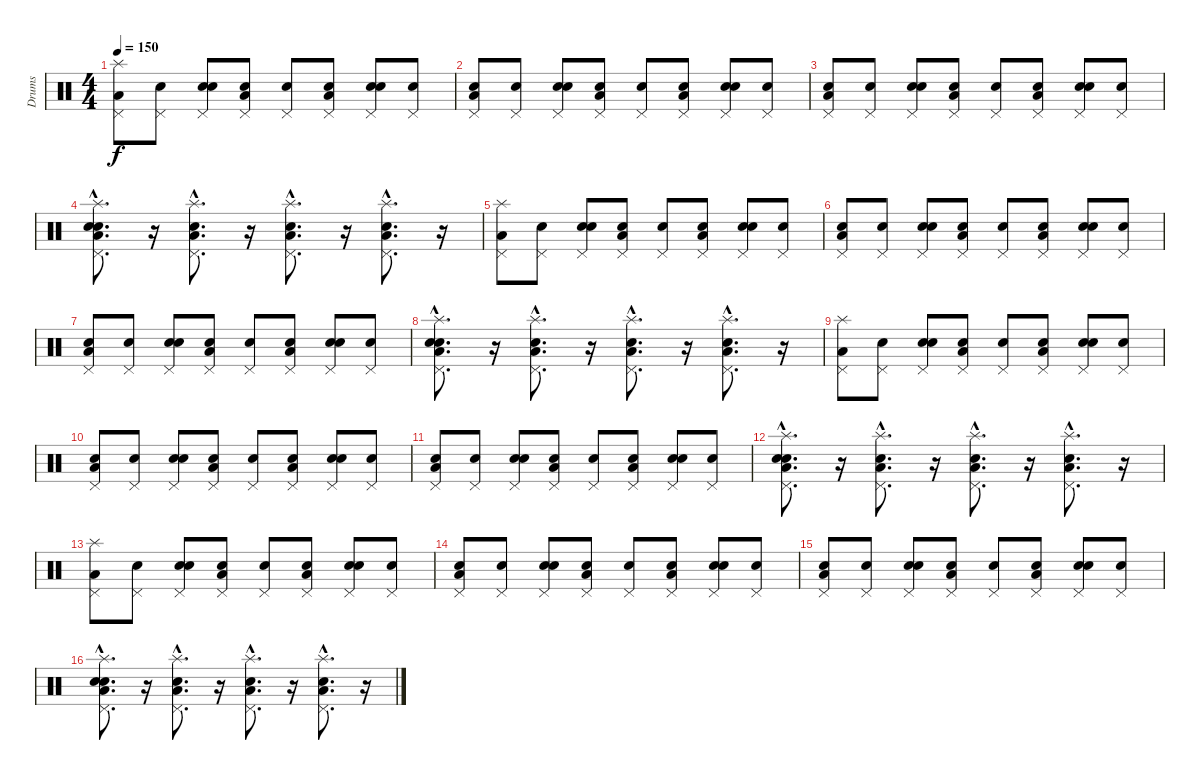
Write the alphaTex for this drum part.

\track ("Drums" "Drums") {instrument percussion}
\staff {score}
\articulation defaults
\ts (4 4)
\tempo 150
\clef neutral
\ks c
("Low Floor Tom (hit)" "Pedal Hi-Hat (hit)" "Splash (hit)").8{dy f} ("Snare (hit)" "Pedal Hi-Hat (hit)").8 ("Snare (hit)" "Electric Snare (hit)" "Pedal Hi-Hat (hit)").8 ("Snare (hit)" "Low Floor Tom (hit)" "Pedal Hi-Hat (hit)").8 ("Snare (hit)" "Pedal Hi-Hat (hit)").8 ("Snare (hit)" "Low Floor Tom (hit)" "Pedal Hi-Hat (hit)").8 ("Snare (hit)" "Electric Snare (hit)" "Pedal Hi-Hat (hit)").8 ("Snare (hit)" "Pedal Hi-Hat (hit)").8 |
("Snare (hit)" "Low Floor Tom (hit)" "Pedal Hi-Hat (hit)").8 ("Snare (hit)" "Pedal Hi-Hat (hit)").8 ("Snare (hit)" "Electric Snare (hit)" "Pedal Hi-Hat (hit)").8 ("Snare (hit)" "Low Floor Tom (hit)" "Pedal Hi-Hat (hit)").8 ("Snare (hit)" "Pedal Hi-Hat (hit)").8 ("Snare (hit)" "Low Floor Tom (hit)" "Pedal Hi-Hat (hit)").8 ("Snare (hit)" "Electric Snare (hit)" "Pedal Hi-Hat (hit)").8 ("Snare (hit)" "Pedal Hi-Hat (hit)").8 |
("Snare (hit)" "Low Floor Tom (hit)" "Pedal Hi-Hat (hit)").8 ("Snare (hit)" "Pedal Hi-Hat (hit)").8 ("Snare (hit)" "Electric Snare (hit)" "Pedal Hi-Hat (hit)").8 ("Snare (hit)" "Low Floor Tom (hit)" "Pedal Hi-Hat (hit)").8 ("Snare (hit)" "Pedal Hi-Hat (hit)").8 ("Snare (hit)" "Low Floor Tom (hit)" "Pedal Hi-Hat (hit)").8 ("Snare (hit)" "Electric Snare (hit)" "Pedal Hi-Hat (hit)").8 ("Snare (hit)" "Pedal Hi-Hat (hit)").8 |
("Snare (hit)"{hac} "Electric Snare (hit)"{hac} "Low Floor Tom (hit)"{hac} "Pedal Hi-Hat (hit)"{hac} "Splash (hit)"{hac}).8{d} r.16 ("Electric Snare (hit)"{hac} "Low Floor Tom (hit)"{hac} "Pedal Hi-Hat (hit)"{hac} "Splash (hit)"{hac}).8{d} r.16 ("Electric Snare (hit)"{hac} "Low Floor Tom (hit)"{hac} "Pedal Hi-Hat (hit)"{hac} "Splash (hit)"{hac}).8{d} r.16 ("Electric Snare (hit)"{hac} "Low Floor Tom (hit)"{hac} "Pedal Hi-Hat (hit)"{hac} "Splash (hit)"{hac}).8{d} r.16 |
("Low Floor Tom (hit)" "Pedal Hi-Hat (hit)" "Splash (hit)").8 ("Snare (hit)" "Pedal Hi-Hat (hit)").8 ("Snare (hit)" "Electric Snare (hit)" "Pedal Hi-Hat (hit)").8 ("Snare (hit)" "Low Floor Tom (hit)" "Pedal Hi-Hat (hit)").8 ("Snare (hit)" "Pedal Hi-Hat (hit)").8 ("Snare (hit)" "Low Floor Tom (hit)" "Pedal Hi-Hat (hit)").8 ("Snare (hit)" "Electric Snare (hit)" "Pedal Hi-Hat (hit)").8 ("Snare (hit)" "Pedal Hi-Hat (hit)").8 |
("Snare (hit)" "Low Floor Tom (hit)" "Pedal Hi-Hat (hit)").8 ("Snare (hit)" "Pedal Hi-Hat (hit)").8 ("Snare (hit)" "Electric Snare (hit)" "Pedal Hi-Hat (hit)").8 ("Snare (hit)" "Low Floor Tom (hit)" "Pedal Hi-Hat (hit)").8 ("Snare (hit)" "Pedal Hi-Hat (hit)").8 ("Snare (hit)" "Low Floor Tom (hit)" "Pedal Hi-Hat (hit)").8 ("Snare (hit)" "Electric Snare (hit)" "Pedal Hi-Hat (hit)").8 ("Snare (hit)" "Pedal Hi-Hat (hit)").8 |
("Snare (hit)" "Low Floor Tom (hit)" "Pedal Hi-Hat (hit)").8 ("Snare (hit)" "Pedal Hi-Hat (hit)").8 ("Snare (hit)" "Electric Snare (hit)" "Pedal Hi-Hat (hit)").8 ("Snare (hit)" "Low Floor Tom (hit)" "Pedal Hi-Hat (hit)").8 ("Snare (hit)" "Pedal Hi-Hat (hit)").8 ("Snare (hit)" "Low Floor Tom (hit)" "Pedal Hi-Hat (hit)").8 ("Snare (hit)" "Electric Snare (hit)" "Pedal Hi-Hat (hit)").8 ("Snare (hit)" "Pedal Hi-Hat (hit)").8 |
("Snare (hit)"{hac} "Electric Snare (hit)"{hac} "Low Floor Tom (hit)"{hac} "Pedal Hi-Hat (hit)"{hac} "Splash (hit)"{hac}).8{d} r.16 ("Electric Snare (hit)"{hac} "Low Floor Tom (hit)"{hac} "Pedal Hi-Hat (hit)"{hac} "Splash (hit)"{hac}).8{d} r.16 ("Electric Snare (hit)"{hac} "Low Floor Tom (hit)"{hac} "Pedal Hi-Hat (hit)"{hac} "Splash (hit)"{hac}).8{d} r.16 ("Electric Snare (hit)"{hac} "Low Floor Tom (hit)"{hac} "Pedal Hi-Hat (hit)"{hac} "Splash (hit)"{hac}).8{d} r.16 |
("Low Floor Tom (hit)" "Pedal Hi-Hat (hit)" "Splash (hit)").8 ("Snare (hit)" "Pedal Hi-Hat (hit)").8 ("Snare (hit)" "Electric Snare (hit)" "Pedal Hi-Hat (hit)").8 ("Snare (hit)" "Low Floor Tom (hit)" "Pedal Hi-Hat (hit)").8 ("Snare (hit)" "Pedal Hi-Hat (hit)").8 ("Snare (hit)" "Low Floor Tom (hit)" "Pedal Hi-Hat (hit)").8 ("Snare (hit)" "Electric Snare (hit)" "Pedal Hi-Hat (hit)").8 ("Snare (hit)" "Pedal Hi-Hat (hit)").8 |
("Snare (hit)" "Low Floor Tom (hit)" "Pedal Hi-Hat (hit)").8 ("Snare (hit)" "Pedal Hi-Hat (hit)").8 ("Snare (hit)" "Electric Snare (hit)" "Pedal Hi-Hat (hit)").8 ("Snare (hit)" "Low Floor Tom (hit)" "Pedal Hi-Hat (hit)").8 ("Snare (hit)" "Pedal Hi-Hat (hit)").8 ("Snare (hit)" "Low Floor Tom (hit)" "Pedal Hi-Hat (hit)").8 ("Snare (hit)" "Electric Snare (hit)" "Pedal Hi-Hat (hit)").8 ("Snare (hit)" "Pedal Hi-Hat (hit)").8 |
("Snare (hit)" "Low Floor Tom (hit)" "Pedal Hi-Hat (hit)").8 ("Snare (hit)" "Pedal Hi-Hat (hit)").8 ("Snare (hit)" "Electric Snare (hit)" "Pedal Hi-Hat (hit)").8 ("Snare (hit)" "Low Floor Tom (hit)" "Pedal Hi-Hat (hit)").8 ("Snare (hit)" "Pedal Hi-Hat (hit)").8 ("Snare (hit)" "Low Floor Tom (hit)" "Pedal Hi-Hat (hit)").8 ("Snare (hit)" "Electric Snare (hit)" "Pedal Hi-Hat (hit)").8 ("Snare (hit)" "Pedal Hi-Hat (hit)").8 |
("Snare (hit)"{hac} "Electric Snare (hit)"{hac} "Low Floor Tom (hit)"{hac} "Pedal Hi-Hat (hit)"{hac} "Splash (hit)"{hac}).8{d} r.16 ("Electric Snare (hit)"{hac} "Low Floor Tom (hit)"{hac} "Pedal Hi-Hat (hit)"{hac} "Splash (hit)"{hac}).8{d} r.16 ("Electric Snare (hit)"{hac} "Low Floor Tom (hit)"{hac} "Pedal Hi-Hat (hit)"{hac} "Splash (hit)"{hac}).8{d} r.16 ("Electric Snare (hit)"{hac} "Low Floor Tom (hit)"{hac} "Pedal Hi-Hat (hit)"{hac} "Splash (hit)"{hac}).8{d} r.16 |
("Low Floor Tom (hit)" "Pedal Hi-Hat (hit)" "Splash (hit)").8 ("Snare (hit)" "Pedal Hi-Hat (hit)").8 ("Snare (hit)" "Electric Snare (hit)" "Pedal Hi-Hat (hit)").8 ("Snare (hit)" "Low Floor Tom (hit)" "Pedal Hi-Hat (hit)").8 ("Snare (hit)" "Pedal Hi-Hat (hit)").8 ("Snare (hit)" "Low Floor Tom (hit)" "Pedal Hi-Hat (hit)").8 ("Snare (hit)" "Electric Snare (hit)" "Pedal Hi-Hat (hit)").8 ("Snare (hit)" "Pedal Hi-Hat (hit)").8 |
("Snare (hit)" "Low Floor Tom (hit)" "Pedal Hi-Hat (hit)").8 ("Snare (hit)" "Pedal Hi-Hat (hit)").8 ("Snare (hit)" "Electric Snare (hit)" "Pedal Hi-Hat (hit)").8 ("Snare (hit)" "Low Floor Tom (hit)" "Pedal Hi-Hat (hit)").8 ("Snare (hit)" "Pedal Hi-Hat (hit)").8 ("Snare (hit)" "Low Floor Tom (hit)" "Pedal Hi-Hat (hit)").8 ("Snare (hit)" "Electric Snare (hit)" "Pedal Hi-Hat (hit)").8 ("Snare (hit)" "Pedal Hi-Hat (hit)").8 |
("Snare (hit)" "Low Floor Tom (hit)" "Pedal Hi-Hat (hit)").8 ("Snare (hit)" "Pedal Hi-Hat (hit)").8 ("Snare (hit)" "Electric Snare (hit)" "Pedal Hi-Hat (hit)").8 ("Snare (hit)" "Low Floor Tom (hit)" "Pedal Hi-Hat (hit)").8 ("Snare (hit)" "Pedal Hi-Hat (hit)").8 ("Snare (hit)" "Low Floor Tom (hit)" "Pedal Hi-Hat (hit)").8 ("Snare (hit)" "Electric Snare (hit)" "Pedal Hi-Hat (hit)").8 ("Snare (hit)" "Pedal Hi-Hat (hit)").8 |
("Snare (hit)"{hac} "Electric Snare (hit)"{hac} "Low Floor Tom (hit)"{hac} "Pedal Hi-Hat (hit)"{hac} "Splash (hit)"{hac}).8{d} r.16 ("Electric Snare (hit)"{hac} "Low Floor Tom (hit)"{hac} "Pedal Hi-Hat (hit)"{hac} "Splash (hit)"{hac}).8{d} r.16 ("Electric Snare (hit)"{hac} "Low Floor Tom (hit)"{hac} "Pedal Hi-Hat (hit)"{hac} "Splash (hit)"{hac}).8{d} r.16 ("Electric Snare (hit)"{hac} "Low Floor Tom (hit)"{hac} "Pedal Hi-Hat (hit)"{hac} "Splash (hit)"{hac}).8{d} r.16
